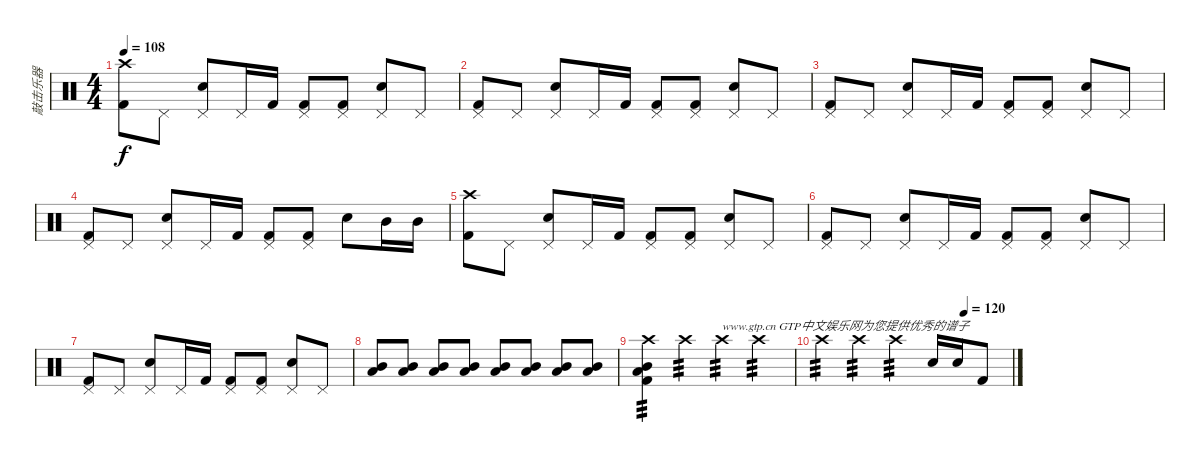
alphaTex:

\track ("敲击乐器" "敲击乐器") {instrument percussion}
\staff {score}
\articulation defaults
\ts (4 4)
\tempo 108
\clef neutral
\ks c
("Crash high (hit)" "Kick (hit) 2").8{dy f} "Pedal Hi-Hat (hit)".8 ("Pedal Hi-Hat (hit)" "Electric Snare (hit)").8 "Pedal Hi-Hat (hit)".16 "Kick (hit) 2".16 ("Pedal Hi-Hat (hit)" "Kick (hit) 2").8 ("Pedal Hi-Hat (hit)" "Kick (hit) 2").8 ("Pedal Hi-Hat (hit)" "Electric Snare (hit)").8 "Pedal Hi-Hat (hit)".8 |
("Pedal Hi-Hat (hit)" "Kick (hit) 2").8 "Pedal Hi-Hat (hit)".8 ("Pedal Hi-Hat (hit)" "Electric Snare (hit)").8 "Pedal Hi-Hat (hit)".16 "Kick (hit) 2".16 ("Pedal Hi-Hat (hit)" "Kick (hit) 2").8 ("Pedal Hi-Hat (hit)" "Kick (hit) 2").8 ("Pedal Hi-Hat (hit)" "Electric Snare (hit)").8 "Pedal Hi-Hat (hit)".8 |
("Pedal Hi-Hat (hit)" "Kick (hit) 2").8 "Pedal Hi-Hat (hit)".8 ("Pedal Hi-Hat (hit)" "Electric Snare (hit)").8 "Pedal Hi-Hat (hit)".16 "Kick (hit) 2".16 ("Pedal Hi-Hat (hit)" "Kick (hit) 2").8 ("Pedal Hi-Hat (hit)" "Kick (hit) 2").8 ("Pedal Hi-Hat (hit)" "Electric Snare (hit)").8 "Pedal Hi-Hat (hit)".8 |
("Pedal Hi-Hat (hit)" "Kick (hit) 2").8 "Pedal Hi-Hat (hit)".8 ("Pedal Hi-Hat (hit)" "Electric Snare (hit)").8 "Pedal Hi-Hat (hit)".16 "Kick (hit) 2".16 ("Pedal Hi-Hat (hit)" "Kick (hit) 2").8 ("Pedal Hi-Hat (hit)" "Kick (hit) 2").8 "Electric Snare (hit)".8 "Mid Tom (hit)".16 "Mid Tom (hit)".16 |
("Crash high (hit)" "Kick (hit) 2").8 "Pedal Hi-Hat (hit)".8 ("Pedal Hi-Hat (hit)" "Electric Snare (hit)").8 "Pedal Hi-Hat (hit)".16 "Kick (hit) 2".16 ("Pedal Hi-Hat (hit)" "Kick (hit) 2").8 ("Pedal Hi-Hat (hit)" "Kick (hit) 2").8 ("Pedal Hi-Hat (hit)" "Electric Snare (hit)").8 "Pedal Hi-Hat (hit)".8 |
("Pedal Hi-Hat (hit)" "Kick (hit) 2").8 "Pedal Hi-Hat (hit)".8 ("Pedal Hi-Hat (hit)" "Electric Snare (hit)").8 "Pedal Hi-Hat (hit)".16 "Kick (hit) 2".16 ("Pedal Hi-Hat (hit)" "Kick (hit) 2").8 ("Pedal Hi-Hat (hit)" "Kick (hit) 2").8 ("Pedal Hi-Hat (hit)" "Electric Snare (hit)").8 "Pedal Hi-Hat (hit)".8 |
("Pedal Hi-Hat (hit)" "Kick (hit) 2").8 "Pedal Hi-Hat (hit)".8 ("Pedal Hi-Hat (hit)" "Electric Snare (hit)").8 "Pedal Hi-Hat (hit)".16 "Kick (hit) 2".16 ("Pedal Hi-Hat (hit)" "Kick (hit) 2").8 ("Pedal Hi-Hat (hit)" "Kick (hit) 2").8 ("Pedal Hi-Hat (hit)" "Electric Snare (hit)").8 "Pedal Hi-Hat (hit)".8 |
("Low Tom (hit)" "Mid Tom (hit)").8 ("Mid Tom (hit)" "Low Tom (hit)").8 ("Mid Tom (hit)" "Low Tom (hit)").8 ("Mid Tom (hit)" "Low Tom (hit)").8 ("Mid Tom (hit)" "Low Tom (hit)").8 ("Mid Tom (hit)" "Low Tom (hit)").8 ("Mid Tom (hit)" "Low Tom (hit)").8 ("Mid Tom (hit)" "Low Tom (hit)").8 |
("Low Tom (hit)" "Mid Tom (hit)" "Kick (hit) 2" "Crash high (hit)").4{tp 3} "Crash high (hit)".4{tp 3} "Crash high (hit)".4{txt "www.gtp.cn GTP中文娱乐网为您提供优秀的谱子" tp 3} "Crash high (hit)".4{tp 3} |
\tempo (120 0.75)
"Crash high (hit)".4{tp 3} "Crash high (hit)".4{tp 3} "Crash high (hit)".4{tp 3} "Electric Snare (hit)".16 "Electric Snare (hit)".16 "Kick (hit) 2".8
